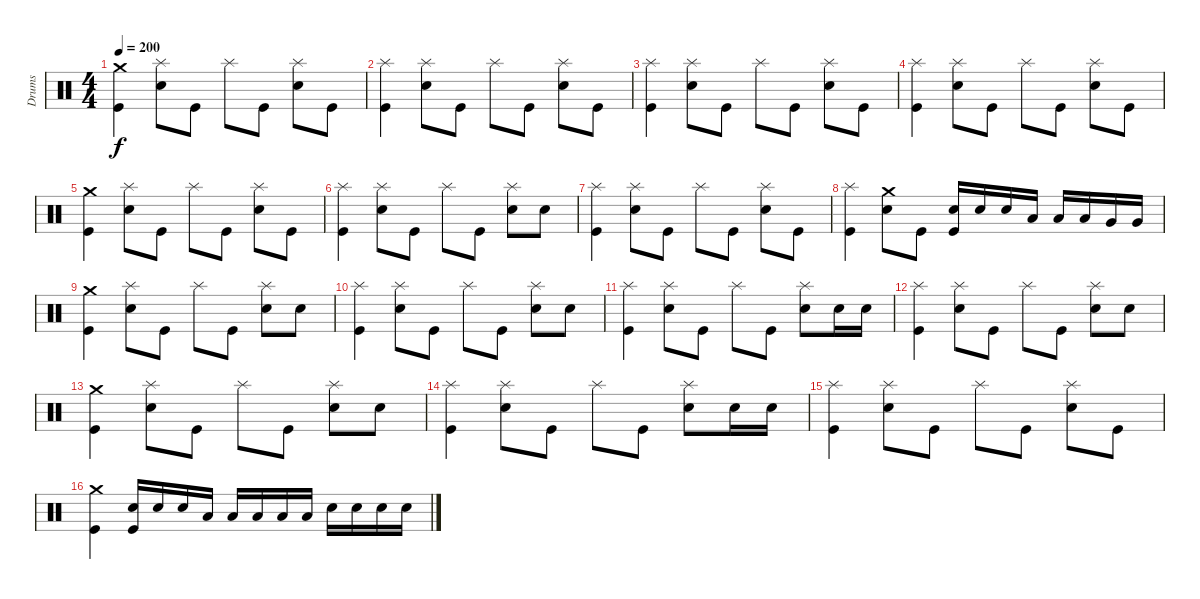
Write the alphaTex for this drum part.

\track ("Drums" "Drums") {instrument percussion}
\staff {score}
\articulation defaults
\ts (4 4)
\tempo 200
\clef neutral
\ks c
("Crash medium (hit)" "Kick (hit)").4{dy f} ("Splash (hit)" "Electric Snare (hit)").8 "Kick (hit)".8 "Splash (hit)".8 "Kick (hit)".8 ("Splash (hit)" "Electric Snare (hit)").8 "Kick (hit)".8 |
("Splash (hit)" "Kick (hit)").4 ("Splash (hit)" "Electric Snare (hit)").8 "Kick (hit)".8 "Splash (hit)".8 "Kick (hit)".8 ("Splash (hit)" "Electric Snare (hit)").8 "Kick (hit)".8 |
("Splash (hit)" "Kick (hit)").4 ("Splash (hit)" "Electric Snare (hit)").8 "Kick (hit)".8 "Splash (hit)".8 "Kick (hit)".8 ("Splash (hit)" "Electric Snare (hit)").8 "Kick (hit)".8 |
("Splash (hit)" "Kick (hit)").4 ("Splash (hit)" "Electric Snare (hit)").8 "Kick (hit)".8 "Splash (hit)".8 "Kick (hit)".8 ("Splash (hit)" "Electric Snare (hit)").8 "Kick (hit)".8 |
("Crash medium (hit)" "Kick (hit)").4 ("Splash (hit)" "Electric Snare (hit)").8 "Kick (hit)".8 "Splash (hit)".8 "Kick (hit)".8 ("Splash (hit)" "Electric Snare (hit)").8 "Kick (hit)".8 |
("Splash (hit)" "Kick (hit)").4 ("Splash (hit)" "Electric Snare (hit)").8 "Kick (hit)".8 "Splash (hit)".8 "Kick (hit)".8 ("Splash (hit)" "Electric Snare (hit)").8 "Electric Snare (hit)".8 |
("Splash (hit)" "Kick (hit)").4 ("Splash (hit)" "Electric Snare (hit)").8 "Kick (hit)".8 "Splash (hit)".8 "Kick (hit)".8 ("Splash (hit)" "Electric Snare (hit)").8 "Kick (hit)".8 |
("Splash (hit)" "Kick (hit)").4 ("Crash medium (hit)" "Electric Snare (hit)").8 "Kick (hit)".8 ("Electric Snare (hit)" "Kick (hit)").16 "Electric Snare (hit)".16 "Electric Snare (hit)".16 "Low Tom (hit)".16 "Low Tom (hit)".16 "Low Tom (hit)".16 "Very Low Tom (hit)".16 "Very Low Tom (hit)".16 |
("Crash medium (hit)" "Kick (hit)").4 ("Splash (hit)" "Electric Snare (hit)").8 "Kick (hit)".8 "Splash (hit)".8 "Kick (hit)".8 ("Splash (hit)" "Electric Snare (hit)").8 "Electric Snare (hit)".8 |
("Splash (hit)" "Kick (hit)").4 ("Splash (hit)" "Electric Snare (hit)").8 "Kick (hit)".8 "Splash (hit)".8 "Kick (hit)".8 ("Splash (hit)" "Electric Snare (hit)").8 "Electric Snare (hit)".8 |
("Splash (hit)" "Kick (hit)").4 ("Splash (hit)" "Electric Snare (hit)").8 "Kick (hit)".8 "Splash (hit)".8 "Kick (hit)".8 ("Splash (hit)" "Electric Snare (hit)").8 "Electric Snare (hit)".16 "Electric Snare (hit)".16 |
("Splash (hit)" "Kick (hit)").4 ("Splash (hit)" "Electric Snare (hit)").8 "Kick (hit)".8 "Splash (hit)".8 "Kick (hit)".8 ("Splash (hit)" "Electric Snare (hit)").8 "Electric Snare (hit)".8 |
("Crash medium (hit)" "Kick (hit)").4 ("Splash (hit)" "Electric Snare (hit)").8 "Kick (hit)".8 "Splash (hit)".8 "Kick (hit)".8 ("Splash (hit)" "Electric Snare (hit)").8 "Electric Snare (hit)".8 |
("Splash (hit)" "Kick (hit)").4 ("Splash (hit)" "Electric Snare (hit)").8 "Kick (hit)".8 "Splash (hit)".8 "Kick (hit)".8 ("Splash (hit)" "Electric Snare (hit)").8 "Electric Snare (hit)".16 "Electric Snare (hit)".16 |
("Splash (hit)" "Kick (hit)").4 ("Splash (hit)" "Electric Snare (hit)").8 "Kick (hit)".8 "Splash (hit)".8 "Kick (hit)".8 ("Splash (hit)" "Electric Snare (hit)").8 "Kick (hit)".8 |
("Crash medium (hit)" "Kick (hit)").4 ("Electric Snare (hit)" "Kick (hit)").16 "Electric Snare (hit)".16 "Electric Snare (hit)".16 "Low Tom (hit)".16 "Low Tom (hit)".16 "Low Tom (hit)".16 "Low Tom (hit)".16 "Low Tom (hit)".16 "Electric Snare (hit)".16 "Electric Snare (hit)".16 "Electric Snare (hit)".16 "Electric Snare (hit)".16
